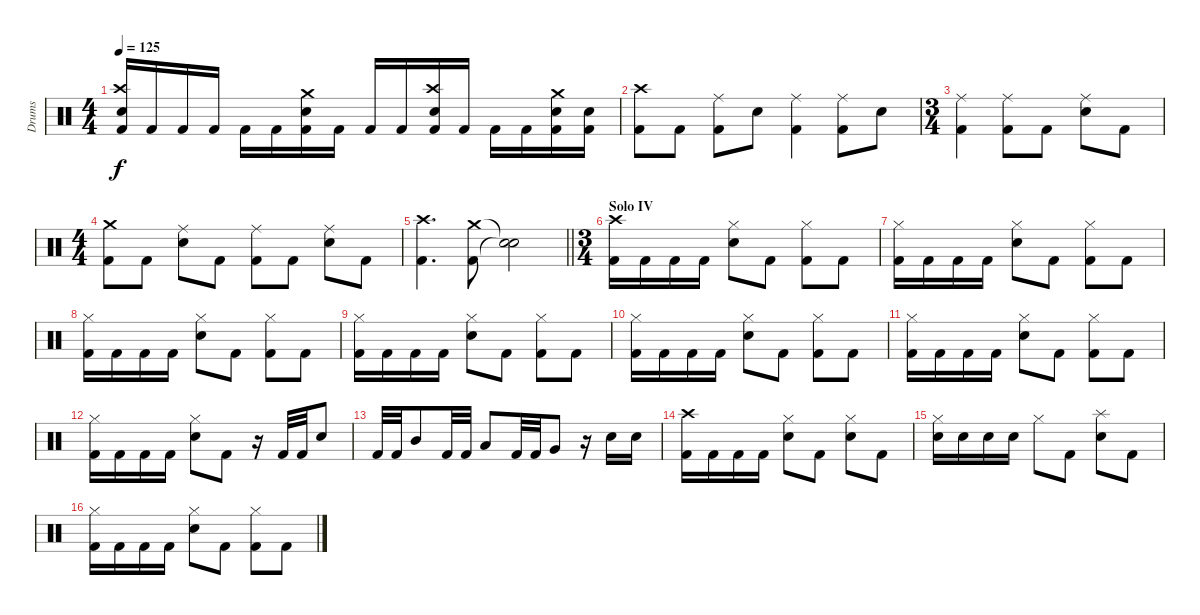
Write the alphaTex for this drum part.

\track ("Drums" "Drums") {instrument percussion}
\staff {score}
\articulation defaults
\ts (4 4)
\tempo 125
\clef neutral
\ks c
("Kick (hit) 2" "Crash high (hit)" "Electric Snare (hit)").16{dy f} "Kick (hit) 2".16 "Kick (hit) 2".16 "Kick (hit) 2".16 "Kick (hit) 2".16 "Kick (hit) 2".16 ("Kick (hit) 2" "Crash medium (hit)" "Electric Snare (hit)").16 "Kick (hit) 2".16 "Kick (hit) 2".16 "Kick (hit) 2".16 ("Kick (hit) 2" "Crash high (hit)" "Electric Snare (hit)").16 "Kick (hit) 2".16 "Kick (hit) 2".16 "Kick (hit) 2".16 ("Kick (hit) 2" "Crash medium (hit)" "Electric Snare (hit)").16 ("Kick (hit) 2" "Electric Snare (hit)").16 |
("Kick (hit) 2" "Crash high (hit)").8 "Kick (hit) 2".8 ("Kick (hit) 2" "Ride (middle)").8 "Electric Snare (hit)".8 ("Kick (hit) 2" "Ride (middle)").4 ("Kick (hit) 2" "Ride (middle)").8 "Electric Snare (hit)".8 |
\ts (3 4)
("Kick (hit) 2" "Ride (middle)").4 ("Kick (hit) 2" "Ride (middle)").8 "Kick (hit) 2".8 ("Ride (middle)" "Electric Snare (hit)").8 "Kick (hit) 2".8 |
\ts (4 4)
("Kick (hit) 2" "Crash medium (hit)").8 "Kick (hit) 2".8 ("Ride (middle)" "Electric Snare (hit)").8 "Kick (hit) 2".8 ("Kick (hit) 2" "Ride (middle)").8 "Kick (hit) 2".8 ("Ride (middle)" "Electric Snare (hit)").8 "Kick (hit) 2".8 |
\barLineRight lightlight
("Kick (hit) 2" "Crash high (hit)").4{d} ("Kick (hit) 2" "Crash medium (hit)").8 ("Snare (hit)"{t} "Snare (hit)"{t}).2 |
\ts (3 4)
\section ("" "Solo IV")
("Kick (hit) 2" "Crash high (hit)").16 "Kick (hit) 2".16 "Kick (hit) 2".16 "Kick (hit) 2".16 ("Hi-Hat (closed)" "Electric Snare (hit)").8 "Kick (hit) 2".8 ("Kick (hit) 2" "Hi-Hat (closed)").8 "Kick (hit) 2".8 |
("Kick (hit) 2" "Hi-Hat (closed)").16 "Kick (hit) 2".16 "Kick (hit) 2".16 "Kick (hit) 2".16 ("Hi-Hat (closed)" "Electric Snare (hit)").8 "Kick (hit) 2".8 ("Kick (hit) 2" "Hi-Hat (closed)").8 "Kick (hit) 2".8 |
("Kick (hit) 2" "Hi-Hat (closed)").16 "Kick (hit) 2".16 "Kick (hit) 2".16 "Kick (hit) 2".16 ("Hi-Hat (closed)" "Electric Snare (hit)").8 "Kick (hit) 2".8 ("Kick (hit) 2" "Hi-Hat (closed)").8 "Kick (hit) 2".8 |
("Kick (hit) 2" "Hi-Hat (closed)").16 "Kick (hit) 2".16 "Kick (hit) 2".16 "Kick (hit) 2".16 ("Hi-Hat (closed)" "Electric Snare (hit)").8 "Kick (hit) 2".8 ("Kick (hit) 2" "Hi-Hat (closed)").8 "Kick (hit) 2".8 |
("Kick (hit) 2" "Hi-Hat (closed)").16 "Kick (hit) 2".16 "Kick (hit) 2".16 "Kick (hit) 2".16 ("Hi-Hat (closed)" "Electric Snare (hit)").8 "Kick (hit) 2".8 ("Kick (hit) 2" "Hi-Hat (closed)").8 "Kick (hit) 2".8 |
("Kick (hit) 2" "Hi-Hat (closed)").16 "Kick (hit) 2".16 "Kick (hit) 2".16 "Kick (hit) 2".16 ("Hi-Hat (closed)" "Electric Snare (hit)").8 "Kick (hit) 2".8 ("Kick (hit) 2" "Hi-Hat (closed)").8 "Kick (hit) 2".8 |
("Kick (hit) 2" "Hi-Hat (closed)").16 "Kick (hit) 2".16 "Kick (hit) 2".16 "Kick (hit) 2".16 ("Hi-Hat (closed)" "Electric Snare (hit)").8 "Kick (hit) 2".8 r.16 "Kick (hit) 2".32 "Kick (hit) 2".32 "Electric Snare (hit)".8 |
"Kick (hit) 2".32 "Kick (hit) 2".32 "Mid Tom (hit)".8 "Kick (hit) 2".32 "Kick (hit) 2".32 "Low Tom (hit)".8 "Kick (hit) 2".32 "Kick (hit) 2".32 "Very Low Tom (hit)".8 r.16 "Electric Snare (hit)".16 "Electric Snare (hit)".16 |
("Kick (hit) 2" "Crash high (hit)").16 "Kick (hit) 2".16 "Kick (hit) 2".16 "Kick (hit) 2".16 ("Hi-Hat (closed)" "Electric Snare (hit)").8 "Kick (hit) 2".8 ("Hi-Hat (closed)" "Electric Snare (hit)").8 "Kick (hit) 2".8 |
("Hi-Hat (closed)" "Electric Snare (hit)").16 "Electric Snare (hit)".16 "Electric Snare (hit)".16 "Electric Snare (hit)".16 "Hi-Hat (closed)".8 "Kick (hit) 2".8 ("Splash (hit)" "Electric Snare (hit)").8 "Kick (hit) 2".8 |
("Kick (hit) 2" "Hi-Hat (closed)").16 "Kick (hit) 2".16 "Kick (hit) 2".16 "Kick (hit) 2".16 ("Hi-Hat (closed)" "Electric Snare (hit)").8 "Kick (hit) 2".8 ("Kick (hit) 2" "Hi-Hat (closed)").8 "Kick (hit) 2".8
